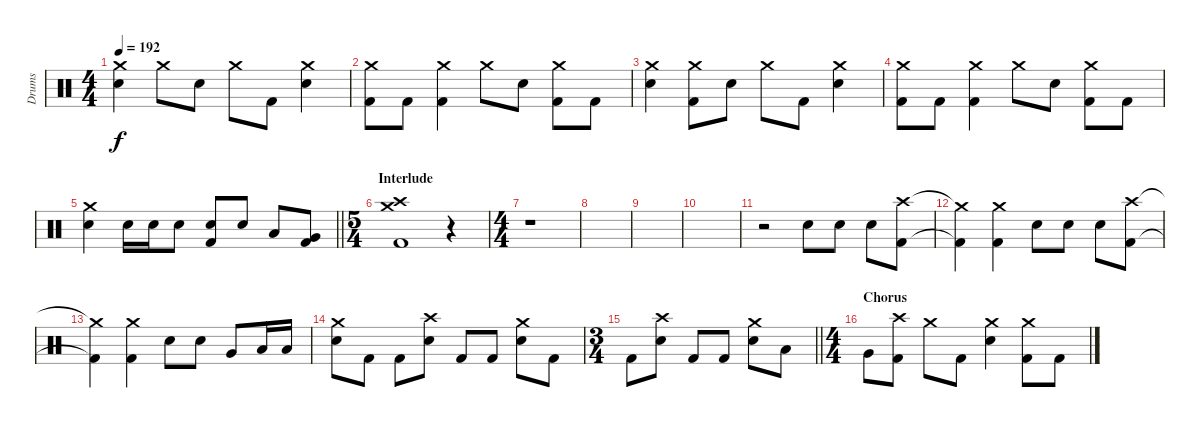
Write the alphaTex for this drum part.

\track ("Drums" "Drums") {instrument percussion}
\staff {score}
\articulation defaults
\ts (4 4)
\tempo 192
\clef neutral
\ks c
("Crash medium (hit)" "Electric Snare (hit)").4{dy f} "Crash medium (hit)".8 "Electric Snare (hit)".8 "Crash medium (hit)".8 "Kick (hit) 2".8 ("Crash medium (hit)" "Electric Snare (hit)").4 |
("Crash medium (hit)" "Kick (hit) 2").8 "Kick (hit) 2".8 ("Crash medium (hit)" "Kick (hit) 2").4 "Crash medium (hit)".8 "Electric Snare (hit)".8 ("Crash medium (hit)" "Kick (hit) 2").8 "Kick (hit) 2".8 |
("Crash medium (hit)" "Electric Snare (hit)").4 ("Crash medium (hit)" "Kick (hit) 2").8 "Electric Snare (hit)".8 "Crash medium (hit)".8 "Kick (hit) 2".8 ("Crash medium (hit)" "Electric Snare (hit)").4 |
("Crash medium (hit)" "Kick (hit) 2").8 "Kick (hit) 2".8 ("Crash medium (hit)" "Kick (hit) 2").4 "Crash medium (hit)".8 "Electric Snare (hit)".8 ("Crash medium (hit)" "Kick (hit) 2").8 "Kick (hit) 2".8 |
\barLineRight lightlight
("Crash medium (hit)" "Electric Snare (hit)").4 "Electric Snare (hit)".16 "Electric Snare (hit)".16 "Electric Snare (hit)".8 ("Electric Snare (hit)" "Kick (hit) 2").8 "Electric Snare (hit)".8 "Low Tom (hit)".8 ("Very Low Tom (hit)" "Kick (hit) 2").8 |
\ts (5 4)
\section ("" "Interlude")
("Crash high (hit)" "Crash medium (hit)" "Kick (hit) 2").1 r.4 |
\ts (4 4)
r.1 |
|
|
|
r.2 "Electric Snare (hit)".8 "Electric Snare (hit)".8 "Electric Snare (hit)".8 ("Crash high (hit)" "Kick (hit) 2").8 |
("Crash medium (hit)"{t} "Kick (hit) 2"{t}).4 ("Crash medium (hit)" "Kick (hit) 2").4 "Electric Snare (hit)".8 "Electric Snare (hit)".8 "Electric Snare (hit)".8 ("Crash high (hit)" "Kick (hit) 2").8 |
("Crash medium (hit)"{t} "Kick (hit) 2"{t}).4 ("Crash medium (hit)" "Kick (hit) 2").4 "Electric Snare (hit)".8 "Electric Snare (hit)".8 "Very Low Tom (hit)".8 "Low Floor Tom (hit)".16 "Low Floor Tom (hit)".16 |
("Crash medium (hit)" "Electric Snare (hit)").8 "Kick (hit) 2".8 "Kick (hit) 2".8 ("Crash high (hit)" "Electric Snare (hit)").8 "Kick (hit) 2".8 "Kick (hit) 2".8 ("Crash medium (hit)" "Electric Snare (hit)").8 "Kick (hit) 2".8 |
\ts (3 4)
\barLineRight lightlight "Kick (hit) 2".8
("Crash high (hit)" "Electric Snare (hit)").8 "Kick (hit) 2".8 "Kick (hit) 2".8 ("Crash medium (hit)" "Electric Snare (hit)").8 "Low Tom (hit)".8 |
\ts (4 4)
\section ("" "Chorus")
"Very Low Tom (hit)".8 ("Crash high (hit)" "Kick (hit) 2").8 "Crash medium (hit)".8 "Kick (hit) 2".8 ("Crash medium (hit)" "Electric Snare (hit)").4 ("Crash medium (hit)" "Kick (hit) 2").8 "Kick (hit) 2".8
